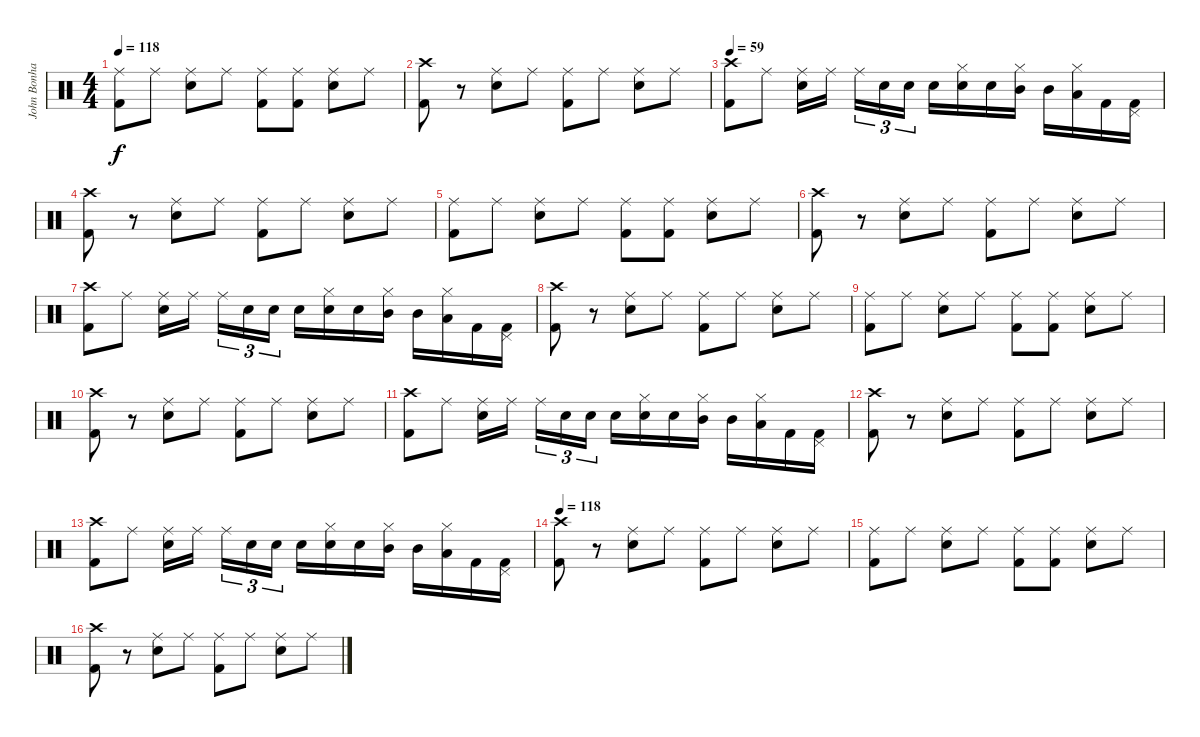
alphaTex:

\track ("John Bonham (Bateria)" "John Bonha") {instrument percussion}
\staff {score}
\articulation defaults
\ts (4 4)
\tempo 118
\clef neutral
\ks c
("Ride (middle)" "Kick (hit) 2").8{dy f} "Ride (middle)".8 ("Snare (hit) 2" "Ride (middle)").8 "Ride (middle)".8 ("Ride (middle)" "Kick (hit) 2").8 ("Ride (middle)" "Kick (hit) 2").8 ("Ride (middle)" "Snare (hit) 2").8 "Ride (middle)".8 |
("Crash high (hit)" "Kick (hit) 2").8 r.8 ("Snare (hit) 2" "Ride (middle)").8 "Ride (middle)".8 ("Ride (middle)" "Kick (hit) 2").8 "Ride (middle)".8 ("Ride (middle)" "Snare (hit) 2").8 "Ride (middle)".8 |
\tempo 75
\tempo 59
("Crash high (hit)" "Kick (hit) 2").8 "Ride (middle)".8 ("Snare (hit) 2" "Ride (middle)").16 "Ride (middle)".16{beam splitsecondary} "Ride (middle)".16{tu (3 2)} "Snare (hit) 2".16{tu (3 2)} "Snare (hit) 2".16{tu (3 2)} "Snare (hit) 2".16 ("Snare (hit) 2" "Hi-Hat (closed)").16 "Snare (hit) 2".16 ("Mid Tom (hit)" "Hi-Hat (closed)").16 "Mid Tom (hit)".16 ("Low Floor Tom (hit)" "Hi-Hat (closed)").16 "Kick (hit) 2".16 ("Pedal Hi-Hat (hit)" "Kick (hit) 2").16 |
("Crash high (hit)" "Kick (hit) 2").8 r.8 ("Snare (hit) 2" "Ride (middle)").8 "Ride (middle)".8 ("Ride (middle)" "Kick (hit) 2").8 "Ride (middle)".8 ("Ride (middle)" "Snare (hit) 2").8 "Ride (middle)".8 |
("Ride (middle)" "Kick (hit) 2").8 "Ride (middle)".8 ("Snare (hit) 2" "Ride (middle)").8 "Ride (middle)".8 ("Ride (middle)" "Kick (hit) 2").8 ("Ride (middle)" "Kick (hit) 2").8 ("Ride (middle)" "Snare (hit) 2").8 "Ride (middle)".8 |
("Crash high (hit)" "Kick (hit) 2").8 r.8 ("Snare (hit) 2" "Ride (middle)").8 "Ride (middle)".8 ("Ride (middle)" "Kick (hit) 2").8 "Ride (middle)".8 ("Ride (middle)" "Snare (hit) 2").8 "Ride (middle)".8 |
("Crash high (hit)" "Kick (hit) 2").8 "Ride (middle)".8 ("Snare (hit) 2" "Ride (middle)").16 "Ride (middle)".16{beam splitsecondary} "Ride (middle)".16{tu (3 2)} "Snare (hit) 2".16{tu (3 2)} "Snare (hit) 2".16{tu (3 2)} "Snare (hit) 2".16 ("Snare (hit) 2" "Hi-Hat (closed)").16 "Snare (hit) 2".16 ("Mid Tom (hit)" "Hi-Hat (closed)").16 "Mid Tom (hit)".16 ("Low Floor Tom (hit)" "Hi-Hat (closed)").16 "Kick (hit) 2".16 ("Pedal Hi-Hat (hit)" "Kick (hit) 2").16 |
("Crash high (hit)" "Kick (hit) 2").8 r.8 ("Snare (hit) 2" "Ride (middle)").8 "Ride (middle)".8 ("Ride (middle)" "Kick (hit) 2").8 "Ride (middle)".8 ("Ride (middle)" "Snare (hit) 2").8 "Ride (middle)".8 |
("Ride (middle)" "Kick (hit) 2").8 "Ride (middle)".8 ("Snare (hit) 2" "Ride (middle)").8 "Ride (middle)".8 ("Ride (middle)" "Kick (hit) 2").8 ("Ride (middle)" "Kick (hit) 2").8 ("Ride (middle)" "Snare (hit) 2").8 "Ride (middle)".8 |
("Crash high (hit)" "Kick (hit) 2").8 r.8 ("Snare (hit) 2" "Ride (middle)").8 "Ride (middle)".8 ("Ride (middle)" "Kick (hit) 2").8 "Ride (middle)".8 ("Ride (middle)" "Snare (hit) 2").8 "Ride (middle)".8 |
("Crash high (hit)" "Kick (hit) 2").8 "Ride (middle)".8 ("Snare (hit) 2" "Ride (middle)").16 "Ride (middle)".16{beam splitsecondary} "Ride (middle)".16{tu (3 2)} "Snare (hit) 2".16{tu (3 2)} "Snare (hit) 2".16{tu (3 2)} "Snare (hit) 2".16 ("Snare (hit) 2" "Hi-Hat (closed)").16 "Snare (hit) 2".16 ("Mid Tom (hit)" "Hi-Hat (closed)").16 "Mid Tom (hit)".16 ("Low Floor Tom (hit)" "Hi-Hat (closed)").16 "Kick (hit) 2".16 ("Pedal Hi-Hat (hit)" "Kick (hit) 2").16 |
("Crash high (hit)" "Kick (hit) 2").8 r.8 ("Snare (hit) 2" "Ride (middle)").8 "Ride (middle)".8 ("Ride (middle)" "Kick (hit) 2").8 "Ride (middle)".8 ("Ride (middle)" "Snare (hit) 2").8 "Ride (middle)".8 |
("Crash high (hit)" "Kick (hit) 2").8 "Ride (middle)".8 ("Snare (hit) 2" "Ride (middle)").16 "Ride (middle)".16{beam splitsecondary} "Ride (middle)".16{tu (3 2)} "Snare (hit) 2".16{tu (3 2)} "Snare (hit) 2".16{tu (3 2)} "Snare (hit) 2".16 ("Snare (hit) 2" "Hi-Hat (closed)").16 "Snare (hit) 2".16 ("Mid Tom (hit)" "Hi-Hat (closed)").16 "Mid Tom (hit)".16 ("Low Floor Tom (hit)" "Hi-Hat (closed)").16 "Kick (hit) 2".16 ("Pedal Hi-Hat (hit)" "Kick (hit) 2").16 |
\tempo 118
("Crash high (hit)" "Kick (hit) 2").8 r.8 ("Snare (hit) 2" "Ride (middle)").8 "Ride (middle)".8 ("Ride (middle)" "Kick (hit) 2").8 "Ride (middle)".8 ("Ride (middle)" "Snare (hit) 2").8 "Ride (middle)".8 |
("Ride (middle)" "Kick (hit) 2").8 "Ride (middle)".8 ("Snare (hit) 2" "Ride (middle)").8 "Ride (middle)".8 ("Ride (middle)" "Kick (hit) 2").8 ("Ride (middle)" "Kick (hit) 2").8 ("Ride (middle)" "Snare (hit) 2").8 "Ride (middle)".8 |
("Crash high (hit)" "Kick (hit) 2").8 r.8 ("Snare (hit) 2" "Ride (middle)").8 "Ride (middle)".8 ("Ride (middle)" "Kick (hit) 2").8 "Ride (middle)".8 ("Ride (middle)" "Snare (hit) 2").8 "Ride (middle)".8
